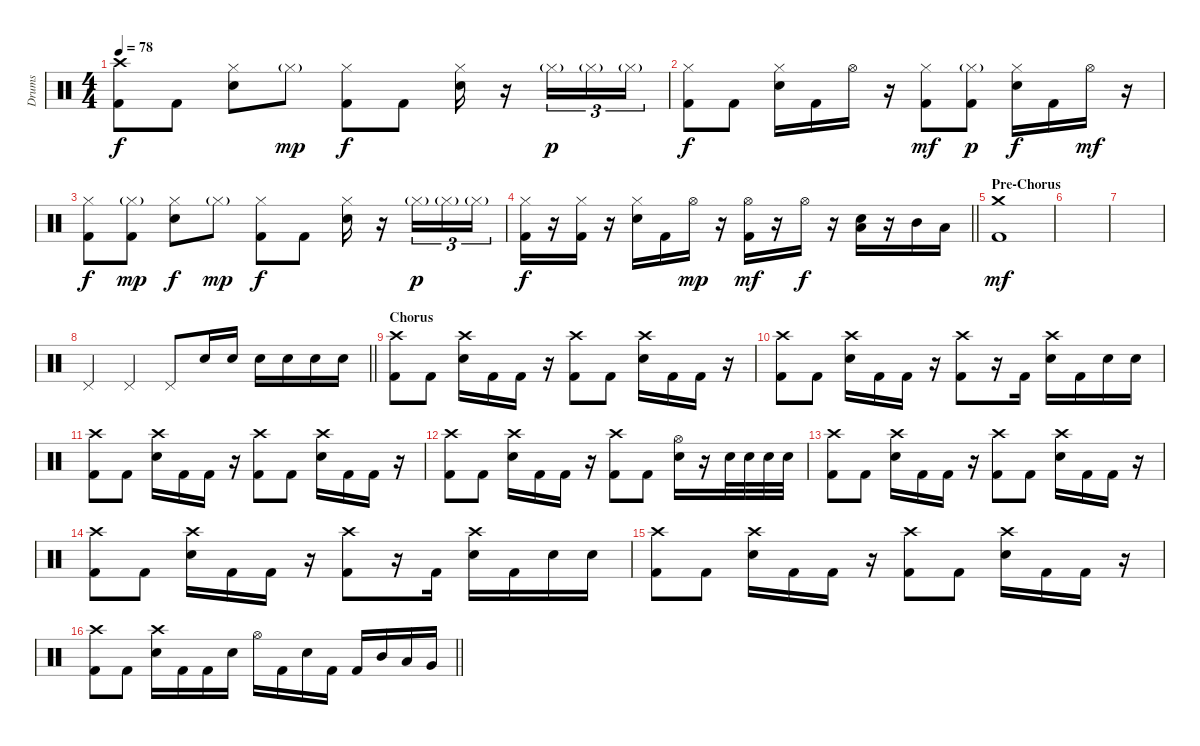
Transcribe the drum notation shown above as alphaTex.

\track ("Drums" "Drums") {instrument percussion}
\staff {score}
\articulation defaults
\ts (4 4)
\tempo 78
\clef neutral
\ks c
("Crash high (hit)" "Kick (hit) 2").8{dy f} "Kick (hit) 2".8 ("Hi-Hat (closed)" "Electric Snare (hit)").8 "Hi-Hat (closed)"{g}.8{dy mp} ("Hi-Hat (closed)" "Kick (hit) 2").8{dy f} "Kick (hit) 2".8 ("Hi-Hat (closed)" "Electric Snare (hit)").16 r.16 "Hi-Hat (closed)"{g}.16{tu (3 2) dy p} "Hi-Hat (closed)"{g}.16{tu (3 2)} "Hi-Hat (closed)"{g}.16{tu (3 2)} |
("Hi-Hat (closed)" "Kick (hit) 2").8{dy f} "Kick (hit) 2".8 ("Hi-Hat (closed)" "Electric Snare (hit)").16 "Kick (hit) 2".16 "Hi-Hat (open)".16 r.16 ("Hi-Hat (closed)" "Kick (hit) 2").8{dy mf} ("Hi-Hat (closed)"{g} "Kick (hit) 2").8{dy p} ("Hi-Hat (closed)" "Electric Snare (hit)").16{dy f} "Kick (hit) 2".16 "Hi-Hat (open)".16{dy mf} r.16 |
("Hi-Hat (closed)" "Kick (hit) 2").8{dy f} ("Hi-Hat (closed)"{g} "Kick (hit) 2").8{dy mp} ("Hi-Hat (closed)" "Electric Snare (hit)").8{dy f} "Hi-Hat (closed)"{g}.8{dy mp} ("Hi-Hat (closed)" "Kick (hit) 2").8{dy f} "Kick (hit) 2".8 ("Hi-Hat (closed)" "Electric Snare (hit)").16 r.16 "Hi-Hat (closed)"{g}.16{tu (3 2) dy p} "Hi-Hat (closed)"{g}.16{tu (3 2)} "Hi-Hat (closed)"{g}.16{tu (3 2)} |
\barLineRight lightlight
("Hi-Hat (closed)" "Kick (hit) 2").16{dy f} r.16 ("Hi-Hat (closed)" "Kick (hit) 2").16 r.16 ("Hi-Hat (closed)" "Electric Snare (hit)").16 "Kick (hit) 2".16 "Hi-Hat (open)".16{dy mp} r.16 ("Hi-Hat (open)" "Kick (hit) 2").16{dy mf} r.16 "Hi-Hat (open)".16{dy f} r.16 ("Low Tom (hit)" "Electric Snare (hit)").16 r.16 "Mid Tom (hit)".16 "Low Tom (hit)".16 |
\section ("" "Pre-Chorus")
("Crash medium (hit)" "Kick (hit) 2").1{dy mf} |
|
|
\barLineRight lightlight "Pedal Hi-Hat (hit)".4 "Pedal Hi-Hat (hit)".4 "Pedal Hi-Hat (hit)".8 "Electric Snare (hit)".16 "Electric Snare (hit)".16 "Electric Snare (hit)".16 "Electric Snare (hit)".16 "Electric Snare (hit)".16 "Electric Snare (hit)".16
|
\section ("" "Chorus")
("Crash high (hit)" "Kick (hit) 2").8 "Kick (hit) 2".8 ("Crash high (hit)" "Electric Snare (hit)").16 "Kick (hit) 2".16 "Kick (hit) 2".16 r.16 ("Crash high (hit)" "Kick (hit) 2").8 "Kick (hit) 2".8 ("Crash high (hit)" "Electric Snare (hit)").16 "Kick (hit) 2".16 "Kick (hit) 2".16 r.16 |
("Crash high (hit)" "Kick (hit) 2").8 "Kick (hit) 2".8 ("Crash high (hit)" "Electric Snare (hit)").16 "Kick (hit) 2".16 "Kick (hit) 2".16 r.16 ("Crash high (hit)" "Kick (hit) 2").8 r.16 "Kick (hit) 2".16 ("Crash high (hit)" "Electric Snare (hit)").16 "Kick (hit) 2".16 "Electric Snare (hit)".16 "Electric Snare (hit)".16 |
("Crash high (hit)" "Kick (hit) 2").8 "Kick (hit) 2".8 ("Crash high (hit)" "Electric Snare (hit)").16 "Kick (hit) 2".16 "Kick (hit) 2".16 r.16 ("Crash high (hit)" "Kick (hit) 2").8 "Kick (hit) 2".8 ("Crash high (hit)" "Electric Snare (hit)").16 "Kick (hit) 2".16 "Kick (hit) 2".16 r.16 |
("Crash high (hit)" "Kick (hit) 2").8 "Kick (hit) 2".8 ("Crash high (hit)" "Electric Snare (hit)").16 "Kick (hit) 2".16 "Kick (hit) 2".16 r.16 ("Crash high (hit)" "Kick (hit) 2").8 "Kick (hit) 2".8 ("Hi-Hat (open)" "Electric Snare (hit)").16 r.16 "Electric Snare (hit)".32 "Electric Snare (hit)".32 "Electric Snare (hit)".32 "Electric Snare (hit)".32 |
("Crash high (hit)" "Kick (hit) 2").8 "Kick (hit) 2".8 ("Crash high (hit)" "Electric Snare (hit)").16 "Kick (hit) 2".16 "Kick (hit) 2".16 r.16 ("Crash high (hit)" "Kick (hit) 2").8 "Kick (hit) 2".8 ("Crash high (hit)" "Electric Snare (hit)").16 "Kick (hit) 2".16 "Kick (hit) 2".16 r.16 |
("Crash high (hit)" "Kick (hit) 2").8 "Kick (hit) 2".8 ("Crash high (hit)" "Electric Snare (hit)").16 "Kick (hit) 2".16 "Kick (hit) 2".16 r.16 ("Crash high (hit)" "Kick (hit) 2").8 r.16 "Kick (hit) 2".16 ("Crash high (hit)" "Electric Snare (hit)").16 "Kick (hit) 2".16 "Electric Snare (hit)".16 "Electric Snare (hit)".16 |
("Crash high (hit)" "Kick (hit) 2").8 "Kick (hit) 2".8 ("Crash high (hit)" "Electric Snare (hit)").16 "Kick (hit) 2".16 "Kick (hit) 2".16 r.16 ("Crash high (hit)" "Kick (hit) 2").8 "Kick (hit) 2".8 ("Crash high (hit)" "Electric Snare (hit)").16 "Kick (hit) 2".16 "Kick (hit) 2".16 r.16 |
\barLineRight lightlight
("Crash high (hit)" "Kick (hit) 2").8 "Kick (hit) 2".8 ("Crash high (hit)" "Electric Snare (hit)").16 "Kick (hit) 2".16 "Kick (hit) 2".16 "Electric Snare (hit)".16 "Hi-Hat (open)".16 "Kick (hit) 2".16 "Electric Snare (hit)".16 "Kick (hit) 2".16 "Kick (hit) 2".16 "Mid Tom (hit)".16 "Low Tom (hit)".16 "Very Low Tom (hit)".16
